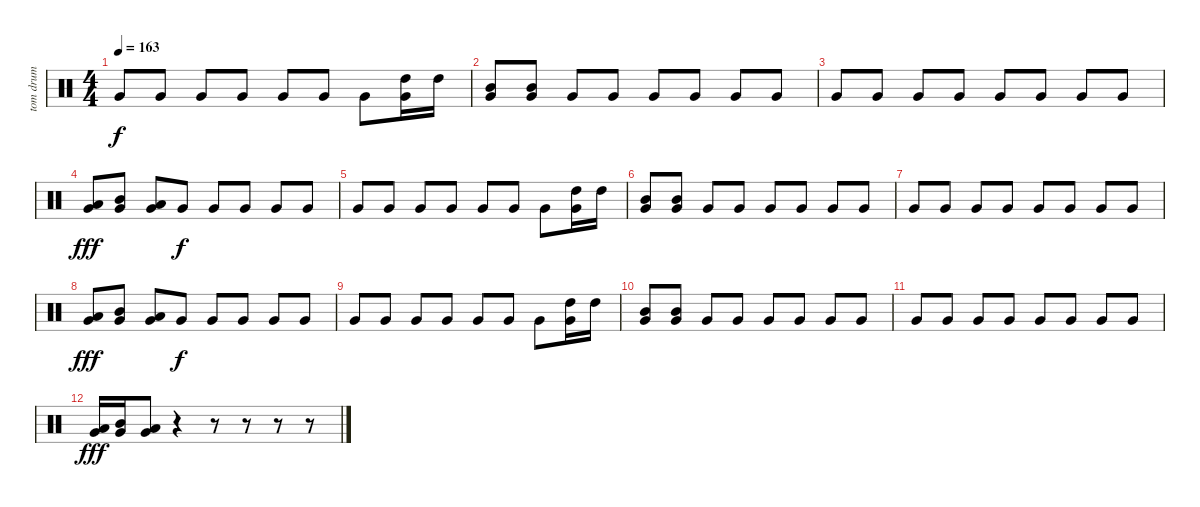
\track ("tom drum" "tom drum") {instrument percussion}
\staff {score}
\articulation defaults
\ts (4 4)
\tempo 163
\clef neutral
\ks c "Very Low Tom (hit)".8{dy f} "Very Low Tom (hit)".8 "Very Low Tom (hit)".8 "Very Low Tom (hit)".8 "Very Low Tom (hit)".8 "Very Low Tom (hit)".8 "Very Low Tom (hit)".8
("Very Low Tom (hit)" "High Tom (hit)").16 "High Tom (hit)".16 |
("Very Low Tom (hit)" "Mid Tom (hit)").8 ("Very Low Tom (hit)" "Mid Tom (hit)").8 "Very Low Tom (hit)".8 "Very Low Tom (hit)".8 "Very Low Tom (hit)".8 "Very Low Tom (hit)".8 "Very Low Tom (hit)".8 "Very Low Tom (hit)".8 |
"Very Low Tom (hit)".8 "Very Low Tom (hit)".8 "Very Low Tom (hit)".8 "Very Low Tom (hit)".8 "Very Low Tom (hit)".8 "Very Low Tom (hit)".8 "Very Low Tom (hit)".8 "Very Low Tom (hit)".8 |
("Very Low Tom (hit)" "Low Tom (hit)").8{dy fff} ("Very Low Tom (hit)" "Mid Tom (hit)").8 ("Very Low Tom (hit)" "Low Tom (hit)").8 "Very Low Tom (hit)".8{dy f} "Very Low Tom (hit)".8 "Very Low Tom (hit)".8 "Very Low Tom (hit)".8 "Very Low Tom (hit)".8 |
"Very Low Tom (hit)".8 "Very Low Tom (hit)".8 "Very Low Tom (hit)".8 "Very Low Tom (hit)".8 "Very Low Tom (hit)".8 "Very Low Tom (hit)".8 "Very Low Tom (hit)".8 ("Very Low Tom (hit)" "High Tom (hit)").16 "High Tom (hit)".16 |
("Very Low Tom (hit)" "Mid Tom (hit)").8 ("Very Low Tom (hit)" "Mid Tom (hit)").8 "Very Low Tom (hit)".8 "Very Low Tom (hit)".8 "Very Low Tom (hit)".8 "Very Low Tom (hit)".8 "Very Low Tom (hit)".8 "Very Low Tom (hit)".8 |
"Very Low Tom (hit)".8 "Very Low Tom (hit)".8 "Very Low Tom (hit)".8 "Very Low Tom (hit)".8 "Very Low Tom (hit)".8 "Very Low Tom (hit)".8 "Very Low Tom (hit)".8 "Very Low Tom (hit)".8 |
("Very Low Tom (hit)" "Low Tom (hit)").8{dy fff} ("Very Low Tom (hit)" "Mid Tom (hit)").8 ("Very Low Tom (hit)" "Low Tom (hit)").8 "Very Low Tom (hit)".8{dy f} "Very Low Tom (hit)".8 "Very Low Tom (hit)".8 "Very Low Tom (hit)".8 "Very Low Tom (hit)".8 |
"Very Low Tom (hit)".8 "Very Low Tom (hit)".8 "Very Low Tom (hit)".8 "Very Low Tom (hit)".8 "Very Low Tom (hit)".8 "Very Low Tom (hit)".8 "Very Low Tom (hit)".8 ("Very Low Tom (hit)" "High Tom (hit)").16 "High Tom (hit)".16 |
("Very Low Tom (hit)" "Mid Tom (hit)").8 ("Very Low Tom (hit)" "Mid Tom (hit)").8 "Very Low Tom (hit)".8 "Very Low Tom (hit)".8 "Very Low Tom (hit)".8 "Very Low Tom (hit)".8 "Very Low Tom (hit)".8 "Very Low Tom (hit)".8 |
"Very Low Tom (hit)".8 "Very Low Tom (hit)".8 "Very Low Tom (hit)".8 "Very Low Tom (hit)".8 "Very Low Tom (hit)".8 "Very Low Tom (hit)".8 "Very Low Tom (hit)".8 "Very Low Tom (hit)".8 |
("Very Low Tom (hit)" "Low Tom (hit)").16{dy fff} ("Very Low Tom (hit)" "Mid Tom (hit)").16 ("Very Low Tom (hit)" "Low Tom (hit)").8 r.4 r.8 r.8 r.8 r.8
